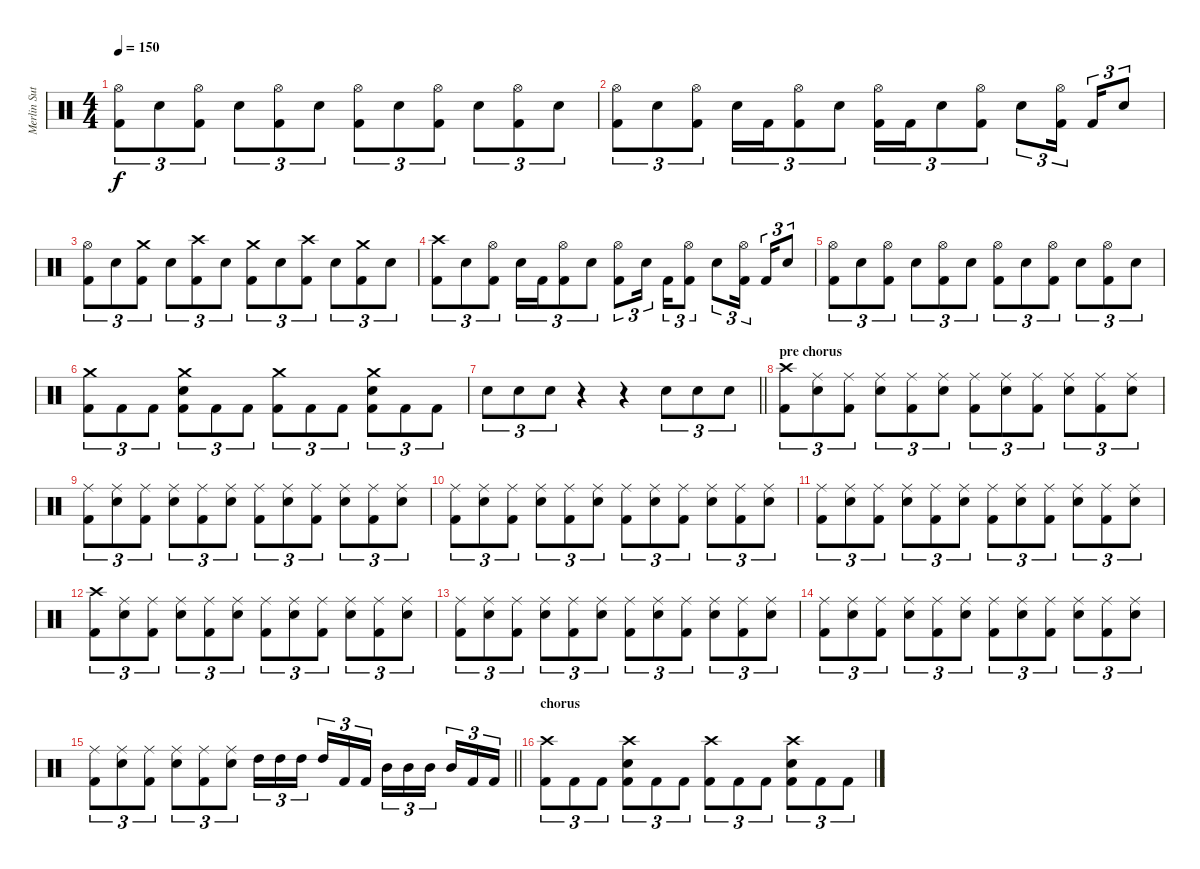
\track ("Merlin Sutter" "Merlin Sut") {instrument percussion}
\staff {score}
\articulation defaults
\ts (4 4)
\tempo 150
\clef neutral
\ks c
("Hi-Hat (open)" "Kick (hit) 2").8{tu (3 2) dy f} "Snare (hit) 2".8{tu (3 2)} ("Hi-Hat (open)" "Kick (hit) 2").8{tu (3 2)} "Snare (hit) 2".8{tu (3 2)} ("Hi-Hat (open)" "Kick (hit) 2").8{tu (3 2)} "Snare (hit) 2".8{tu (3 2)} ("Hi-Hat (open)" "Kick (hit) 2").8{tu (3 2)} "Snare (hit) 2".8{tu (3 2)} ("Hi-Hat (open)" "Kick (hit) 2").8{tu (3 2)} "Snare (hit) 2".8{tu (3 2)} ("Hi-Hat (open)" "Kick (hit) 2").8{tu (3 2)} "Snare (hit) 2".8{tu (3 2)} |
("Hi-Hat (open)" "Kick (hit) 2").8{tu (3 2)} "Snare (hit) 2".8{tu (3 2)} ("Hi-Hat (open)" "Kick (hit) 2").8{tu (3 2)} "Snare (hit) 2".16{tu (3 2)} "Kick (hit) 2".16{tu (3 2)} ("Hi-Hat (open)" "Kick (hit) 2").8{tu (3 2)} "Snare (hit) 2".8{tu (3 2)} ("Hi-Hat (open)" "Kick (hit) 2").16{tu (3 2)} "Kick (hit) 2".16{tu (3 2)} "Snare (hit) 2".8{tu (3 2)} ("Hi-Hat (open)" "Kick (hit) 2").8{tu (3 2)} "Snare (hit) 2".8{tu (3 2)} ("Hi-Hat (open)" "Kick (hit) 2").16{tu (3 2) beam splitsecondary} "Kick (hit) 2".16{tu (3 2)} "Snare (hit) 2".8{tu (3 2)} |
("Hi-Hat (open)" "Kick (hit) 2").8{tu (3 2)} "Snare (hit) 2".8{tu (3 2)} ("Crash medium (hit)" "Kick (hit) 2").8{tu (3 2)} "Snare (hit) 2".8{tu (3 2)} ("Crash high (hit)" "Kick (hit) 2").8{tu (3 2)} "Snare (hit) 2".8{tu (3 2)} ("Crash medium (hit)" "Kick (hit) 2").8{tu (3 2)} "Snare (hit) 2".8{tu (3 2)} ("Crash high (hit)" "Kick (hit) 2").8{tu (3 2)} "Snare (hit) 2".8{tu (3 2)} ("Crash medium (hit)" "Kick (hit) 2").8{tu (3 2)} "Snare (hit) 2".8{tu (3 2)} |
("Crash high (hit)" "Kick (hit) 2").8{tu (3 2)} "Snare (hit) 2".8{tu (3 2)} ("Hi-Hat (open)" "Kick (hit) 2").8{tu (3 2)} "Snare (hit) 2".16{tu (3 2)} "Kick (hit) 2".16{tu (3 2)} ("Hi-Hat (open)" "Kick (hit) 2").8{tu (3 2)} "Snare (hit) 2".8{tu (3 2)} ("Hi-Hat (open)" "Kick (hit) 2").8{tu (3 2)} "Snare (hit) 2".16{tu (3 2) beam splitsecondary} "Kick (hit) 2".16{tu (3 2)} ("Hi-Hat (open)" "Kick (hit) 2").8{tu (3 2)} "Snare (hit) 2".8{tu (3 2)} ("Hi-Hat (open)" "Kick (hit) 2").16{tu (3 2) beam splitsecondary} "Kick (hit) 2".16{tu (3 2)} "Snare (hit) 2".8{tu (3 2)} |
("Hi-Hat (open)" "Kick (hit) 2").8{tu (3 2)} "Snare (hit) 2".8{tu (3 2)} ("Hi-Hat (open)" "Kick (hit) 2").8{tu (3 2)} "Snare (hit) 2".8{tu (3 2)} ("Hi-Hat (open)" "Kick (hit) 2").8{tu (3 2)} "Snare (hit) 2".8{tu (3 2)} ("Hi-Hat (open)" "Kick (hit) 2").8{tu (3 2)} "Snare (hit) 2".8{tu (3 2)} ("Hi-Hat (open)" "Kick (hit) 2").8{tu (3 2)} "Snare (hit) 2".8{tu (3 2)} ("Hi-Hat (open)" "Kick (hit) 2").8{tu (3 2)} "Snare (hit) 2".8{tu (3 2)} |
("Crash medium (hit)" "Kick (hit) 2").8{tu (3 2)} "Kick (hit) 2".8{tu (3 2)} "Kick (hit) 2".8{tu (3 2)} ("Crash medium (hit)" "Snare (hit) 2" "Kick (hit) 2").8{tu (3 2)} "Kick (hit) 2".8{tu (3 2)} "Kick (hit) 2".8{tu (3 2)} ("Crash medium (hit)" "Kick (hit) 2").8{tu (3 2)} "Kick (hit) 2".8{tu (3 2)} "Kick (hit) 2".8{tu (3 2)} ("Crash medium (hit)" "Snare (hit) 2" "Kick (hit) 2").8{tu (3 2)} "Kick (hit) 2".8{tu (3 2)} "Kick (hit) 2".8{tu (3 2)} |
\barLineRight lightlight "Snare (hit) 2".8{tu (3 2)} "Snare (hit) 2".8{tu (3 2)} "Snare (hit) 2".8{tu (3 2)}
r.4 r.4 "Snare (hit) 2".8{tu (3 2)} "Snare (hit) 2".8{tu (3 2)} "Snare (hit) 2".8{tu (3 2)} |
\section ("" "pre chorus")
("Crash high (hit)" "Kick (hit) 2").8{tu (3 2)} ("Ride (middle)" "Snare (hit) 2").8{tu (3 2)} ("Ride (middle)" "Kick (hit) 2").8{tu (3 2)} ("Ride (middle)" "Snare (hit) 2").8{tu (3 2)} ("Ride (middle)" "Kick (hit) 2").8{tu (3 2)} ("Ride (middle)" "Snare (hit) 2").8{tu (3 2)} ("Ride (middle)" "Kick (hit) 2").8{tu (3 2)} ("Ride (middle)" "Snare (hit) 2").8{tu (3 2)} ("Ride (middle)" "Kick (hit) 2").8{tu (3 2)} ("Ride (middle)" "Snare (hit) 2").8{tu (3 2)} ("Ride (middle)" "Kick (hit) 2").8{tu (3 2)} ("Ride (middle)" "Snare (hit) 2").8{tu (3 2)} |
("Ride (middle)" "Kick (hit) 2").8{tu (3 2)} ("Ride (middle)" "Snare (hit) 2").8{tu (3 2)} ("Ride (middle)" "Kick (hit) 2").8{tu (3 2)} ("Ride (middle)" "Snare (hit) 2").8{tu (3 2)} ("Ride (middle)" "Kick (hit) 2").8{tu (3 2)} ("Ride (middle)" "Snare (hit) 2").8{tu (3 2)} ("Ride (middle)" "Kick (hit) 2").8{tu (3 2)} ("Ride (middle)" "Snare (hit) 2").8{tu (3 2)} ("Ride (middle)" "Kick (hit) 2").8{tu (3 2)} ("Ride (middle)" "Snare (hit) 2").8{tu (3 2)} ("Ride (middle)" "Kick (hit) 2").8{tu (3 2)} ("Ride (middle)" "Snare (hit) 2").8{tu (3 2)} |
("Ride (middle)" "Kick (hit) 2").8{tu (3 2)} ("Ride (middle)" "Snare (hit) 2").8{tu (3 2)} ("Ride (middle)" "Kick (hit) 2").8{tu (3 2)} ("Ride (middle)" "Snare (hit) 2").8{tu (3 2)} ("Ride (middle)" "Kick (hit) 2").8{tu (3 2)} ("Ride (middle)" "Snare (hit) 2").8{tu (3 2)} ("Ride (middle)" "Kick (hit) 2").8{tu (3 2)} ("Ride (middle)" "Snare (hit) 2").8{tu (3 2)} ("Ride (middle)" "Kick (hit) 2").8{tu (3 2)} ("Ride (middle)" "Snare (hit) 2").8{tu (3 2)} ("Ride (middle)" "Kick (hit) 2").8{tu (3 2)} ("Ride (middle)" "Snare (hit) 2").8{tu (3 2)} |
("Ride (middle)" "Kick (hit) 2").8{tu (3 2)} ("Ride (middle)" "Snare (hit) 2").8{tu (3 2)} ("Ride (middle)" "Kick (hit) 2").8{tu (3 2)} ("Ride (middle)" "Snare (hit) 2").8{tu (3 2)} ("Ride (middle)" "Kick (hit) 2").8{tu (3 2)} ("Ride (middle)" "Snare (hit) 2").8{tu (3 2)} ("Ride (middle)" "Kick (hit) 2").8{tu (3 2)} ("Ride (middle)" "Snare (hit) 2").8{tu (3 2)} ("Ride (middle)" "Kick (hit) 2").8{tu (3 2)} ("Ride (middle)" "Snare (hit) 2").8{tu (3 2)} ("Ride (middle)" "Kick (hit) 2").8{tu (3 2)} ("Ride (middle)" "Snare (hit) 2").8{tu (3 2)} |
("Crash high (hit)" "Kick (hit) 2").8{tu (3 2)} ("Ride (middle)" "Snare (hit) 2").8{tu (3 2)} ("Ride (middle)" "Kick (hit) 2").8{tu (3 2)} ("Ride (middle)" "Snare (hit) 2").8{tu (3 2)} ("Ride (middle)" "Kick (hit) 2").8{tu (3 2)} ("Ride (middle)" "Snare (hit) 2").8{tu (3 2)} ("Ride (middle)" "Kick (hit) 2").8{tu (3 2)} ("Ride (middle)" "Snare (hit) 2").8{tu (3 2)} ("Ride (middle)" "Kick (hit) 2").8{tu (3 2)} ("Ride (middle)" "Snare (hit) 2").8{tu (3 2)} ("Ride (middle)" "Kick (hit) 2").8{tu (3 2)} ("Ride (middle)" "Snare (hit) 2").8{tu (3 2)} |
("Ride (middle)" "Kick (hit) 2").8{tu (3 2)} ("Ride (middle)" "Snare (hit) 2").8{tu (3 2)} ("Ride (middle)" "Kick (hit) 2").8{tu (3 2)} ("Ride (middle)" "Snare (hit) 2").8{tu (3 2)} ("Ride (middle)" "Kick (hit) 2").8{tu (3 2)} ("Ride (middle)" "Snare (hit) 2").8{tu (3 2)} ("Ride (middle)" "Kick (hit) 2").8{tu (3 2)} ("Ride (middle)" "Snare (hit) 2").8{tu (3 2)} ("Ride (middle)" "Kick (hit) 2").8{tu (3 2)} ("Ride (middle)" "Snare (hit) 2").8{tu (3 2)} ("Ride (middle)" "Kick (hit) 2").8{tu (3 2)} ("Ride (middle)" "Snare (hit) 2").8{tu (3 2)} |
("Ride (middle)" "Kick (hit) 2").8{tu (3 2)} ("Ride (middle)" "Snare (hit) 2").8{tu (3 2)} ("Ride (middle)" "Kick (hit) 2").8{tu (3 2)} ("Ride (middle)" "Snare (hit) 2").8{tu (3 2)} ("Ride (middle)" "Kick (hit) 2").8{tu (3 2)} ("Ride (middle)" "Snare (hit) 2").8{tu (3 2)} ("Ride (middle)" "Kick (hit) 2").8{tu (3 2)} ("Ride (middle)" "Snare (hit) 2").8{tu (3 2)} ("Ride (middle)" "Kick (hit) 2").8{tu (3 2)} ("Ride (middle)" "Snare (hit) 2").8{tu (3 2)} ("Ride (middle)" "Kick (hit) 2").8{tu (3 2)} ("Ride (middle)" "Snare (hit) 2").8{tu (3 2)} |
\barLineRight lightlight
("Ride (middle)" "Kick (hit) 2").8{tu (3 2)} ("Ride (middle)" "Snare (hit) 2").8{tu (3 2)} ("Ride (middle)" "Kick (hit) 2").8{tu (3 2)} ("Ride (middle)" "Snare (hit) 2").8{tu (3 2)} ("Ride (middle)" "Kick (hit) 2").8{tu (3 2)} ("Ride (middle)" "Snare (hit) 2").8{tu (3 2)} "High Tom (hit)".16{tu (3 2)} "High Tom (hit)".16{tu (3 2)} "High Tom (hit)".16{tu (3 2) beam splitsecondary} "High Tom (hit)".16{tu (3 2)} "Kick (hit) 2".16{tu (3 2)} "Kick (hit) 2".16{tu (3 2)} "Mid Tom (hit)".16{tu (3 2)} "Mid Tom (hit)".16{tu (3 2)} "Mid Tom (hit)".16{tu (3 2) beam splitsecondary} "Mid Tom (hit)".16{tu (3 2)} "Kick (hit) 2".16{tu (3 2)} "Kick (hit) 2".16{tu (3 2)} |
\section ("" "chorus")
("Crash high (hit)" "Kick (hit) 2").8{tu (3 2)} "Kick (hit) 2".8{tu (3 2)} "Kick (hit) 2".8{tu (3 2)} ("Crash high (hit)" "Snare (hit) 2" "Kick (hit) 2").8{tu (3 2)} "Kick (hit) 2".8{tu (3 2)} "Kick (hit) 2".8{tu (3 2)} ("Crash high (hit)" "Kick (hit) 2").8{tu (3 2)} "Kick (hit) 2".8{tu (3 2)} "Kick (hit) 2".8{tu (3 2)} ("Crash high (hit)" "Snare (hit) 2" "Kick (hit) 2").8{tu (3 2)} "Kick (hit) 2".8{tu (3 2)} "Kick (hit) 2".8{tu (3 2)}
